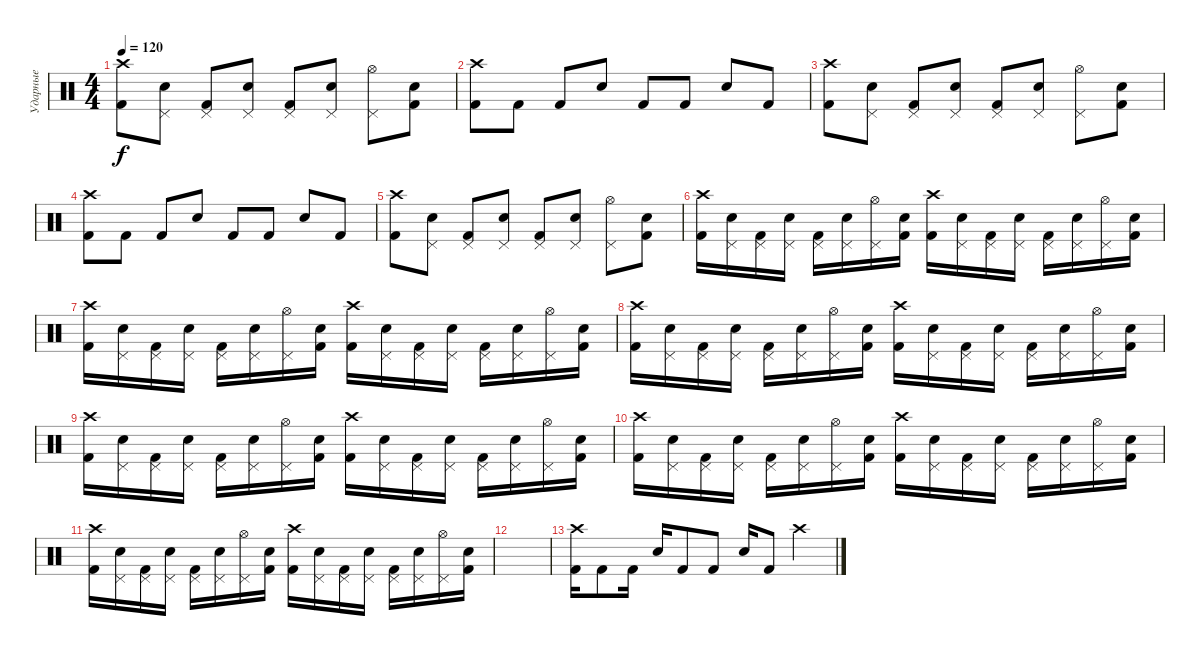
\track ("Ударные" "Ударные") {instrument percussion}
\staff {score}
\articulation defaults
\ts (4 4)
\tempo 120
\clef neutral
\ks c
("Crash high (hit)" "Kick (hit) 2").8{dy f} ("Electric Snare (hit)" "Pedal Hi-Hat (hit)").8 ("Pedal Hi-Hat (hit)" "Kick (hit) 2").8 ("Electric Snare (hit)" "Pedal Hi-Hat (hit)").8 ("Pedal Hi-Hat (hit)" "Kick (hit) 2").8 ("Electric Snare (hit)" "Pedal Hi-Hat (hit)").8 ("Hi-Hat (open)" "Pedal Hi-Hat (hit)").8 ("Electric Snare (hit)" "Kick (hit) 2").8 |
("Crash high (hit)" "Kick (hit) 2").8 "Kick (hit) 2".8 "Kick (hit) 2".8 "Electric Snare (hit)".8 "Kick (hit) 2".8 "Kick (hit) 2".8 "Electric Snare (hit)".8 "Kick (hit) 2".8 |
("Crash high (hit)" "Kick (hit) 2").8 ("Electric Snare (hit)" "Pedal Hi-Hat (hit)").8 ("Pedal Hi-Hat (hit)" "Kick (hit) 2").8 ("Electric Snare (hit)" "Pedal Hi-Hat (hit)").8 ("Pedal Hi-Hat (hit)" "Kick (hit) 2").8 ("Electric Snare (hit)" "Pedal Hi-Hat (hit)").8 ("Hi-Hat (open)" "Pedal Hi-Hat (hit)").8 ("Electric Snare (hit)" "Kick (hit) 2").8 |
("Crash high (hit)" "Kick (hit) 2").8 "Kick (hit) 2".8 "Kick (hit) 2".8 "Electric Snare (hit)".8 "Kick (hit) 2".8 "Kick (hit) 2".8 "Electric Snare (hit)".8 "Kick (hit) 2".8 |
("Crash high (hit)" "Kick (hit) 2").8 ("Electric Snare (hit)" "Pedal Hi-Hat (hit)").8 ("Pedal Hi-Hat (hit)" "Kick (hit) 2").8 ("Electric Snare (hit)" "Pedal Hi-Hat (hit)").8 ("Pedal Hi-Hat (hit)" "Kick (hit) 2").8 ("Electric Snare (hit)" "Pedal Hi-Hat (hit)").8 ("Hi-Hat (open)" "Pedal Hi-Hat (hit)").8 ("Electric Snare (hit)" "Kick (hit) 2").8 |
("Crash high (hit)" "Kick (hit) 2").16 ("Electric Snare (hit)" "Pedal Hi-Hat (hit)").16 ("Pedal Hi-Hat (hit)" "Kick (hit) 2").16 ("Electric Snare (hit)" "Pedal Hi-Hat (hit)").16 ("Pedal Hi-Hat (hit)" "Kick (hit) 2").16 ("Electric Snare (hit)" "Pedal Hi-Hat (hit)").16 ("Hi-Hat (open)" "Pedal Hi-Hat (hit)").16 ("Electric Snare (hit)" "Kick (hit) 2").16 ("Crash high (hit)" "Kick (hit) 2").16 ("Electric Snare (hit)" "Pedal Hi-Hat (hit)").16 ("Pedal Hi-Hat (hit)" "Kick (hit) 2").16 ("Electric Snare (hit)" "Pedal Hi-Hat (hit)").16 ("Pedal Hi-Hat (hit)" "Kick (hit) 2").16 ("Electric Snare (hit)" "Pedal Hi-Hat (hit)").16 ("Hi-Hat (open)" "Pedal Hi-Hat (hit)").16 ("Electric Snare (hit)" "Kick (hit) 2").16 |
("Crash high (hit)" "Kick (hit) 2").16 ("Electric Snare (hit)" "Pedal Hi-Hat (hit)").16 ("Pedal Hi-Hat (hit)" "Kick (hit) 2").16 ("Electric Snare (hit)" "Pedal Hi-Hat (hit)").16 ("Pedal Hi-Hat (hit)" "Kick (hit) 2").16 ("Electric Snare (hit)" "Pedal Hi-Hat (hit)").16 ("Hi-Hat (open)" "Pedal Hi-Hat (hit)").16 ("Electric Snare (hit)" "Kick (hit) 2").16 ("Crash high (hit)" "Kick (hit) 2").16 ("Electric Snare (hit)" "Pedal Hi-Hat (hit)").16 ("Pedal Hi-Hat (hit)" "Kick (hit) 2").16 ("Electric Snare (hit)" "Pedal Hi-Hat (hit)").16 ("Pedal Hi-Hat (hit)" "Kick (hit) 2").16 ("Electric Snare (hit)" "Pedal Hi-Hat (hit)").16 ("Hi-Hat (open)" "Pedal Hi-Hat (hit)").16 ("Electric Snare (hit)" "Kick (hit) 2").16 |
("Crash high (hit)" "Kick (hit) 2").16 ("Electric Snare (hit)" "Pedal Hi-Hat (hit)").16 ("Pedal Hi-Hat (hit)" "Kick (hit) 2").16 ("Electric Snare (hit)" "Pedal Hi-Hat (hit)").16 ("Pedal Hi-Hat (hit)" "Kick (hit) 2").16 ("Electric Snare (hit)" "Pedal Hi-Hat (hit)").16 ("Hi-Hat (open)" "Pedal Hi-Hat (hit)").16 ("Electric Snare (hit)" "Kick (hit) 2").16 ("Crash high (hit)" "Kick (hit) 2").16 ("Electric Snare (hit)" "Pedal Hi-Hat (hit)").16 ("Pedal Hi-Hat (hit)" "Kick (hit) 2").16 ("Electric Snare (hit)" "Pedal Hi-Hat (hit)").16 ("Pedal Hi-Hat (hit)" "Kick (hit) 2").16 ("Electric Snare (hit)" "Pedal Hi-Hat (hit)").16 ("Hi-Hat (open)" "Pedal Hi-Hat (hit)").16 ("Electric Snare (hit)" "Kick (hit) 2").16 |
("Crash high (hit)" "Kick (hit) 2").16 ("Electric Snare (hit)" "Pedal Hi-Hat (hit)").16 ("Pedal Hi-Hat (hit)" "Kick (hit) 2").16 ("Electric Snare (hit)" "Pedal Hi-Hat (hit)").16 ("Pedal Hi-Hat (hit)" "Kick (hit) 2").16 ("Electric Snare (hit)" "Pedal Hi-Hat (hit)").16 ("Hi-Hat (open)" "Pedal Hi-Hat (hit)").16 ("Electric Snare (hit)" "Kick (hit) 2").16 ("Crash high (hit)" "Kick (hit) 2").16 ("Electric Snare (hit)" "Pedal Hi-Hat (hit)").16 ("Pedal Hi-Hat (hit)" "Kick (hit) 2").16 ("Electric Snare (hit)" "Pedal Hi-Hat (hit)").16 ("Pedal Hi-Hat (hit)" "Kick (hit) 2").16 ("Electric Snare (hit)" "Pedal Hi-Hat (hit)").16 ("Hi-Hat (open)" "Pedal Hi-Hat (hit)").16 ("Electric Snare (hit)" "Kick (hit) 2").16 |
("Crash high (hit)" "Kick (hit) 2").16 ("Electric Snare (hit)" "Pedal Hi-Hat (hit)").16 ("Pedal Hi-Hat (hit)" "Kick (hit) 2").16 ("Electric Snare (hit)" "Pedal Hi-Hat (hit)").16 ("Pedal Hi-Hat (hit)" "Kick (hit) 2").16 ("Electric Snare (hit)" "Pedal Hi-Hat (hit)").16 ("Hi-Hat (open)" "Pedal Hi-Hat (hit)").16 ("Electric Snare (hit)" "Kick (hit) 2").16 ("Crash high (hit)" "Kick (hit) 2").16 ("Electric Snare (hit)" "Pedal Hi-Hat (hit)").16 ("Pedal Hi-Hat (hit)" "Kick (hit) 2").16 ("Electric Snare (hit)" "Pedal Hi-Hat (hit)").16 ("Pedal Hi-Hat (hit)" "Kick (hit) 2").16 ("Electric Snare (hit)" "Pedal Hi-Hat (hit)").16 ("Hi-Hat (open)" "Pedal Hi-Hat (hit)").16 ("Electric Snare (hit)" "Kick (hit) 2").16 |
("Crash high (hit)" "Kick (hit) 2").16 ("Electric Snare (hit)" "Pedal Hi-Hat (hit)").16 ("Pedal Hi-Hat (hit)" "Kick (hit) 2").16 ("Electric Snare (hit)" "Pedal Hi-Hat (hit)").16 ("Pedal Hi-Hat (hit)" "Kick (hit) 2").16 ("Electric Snare (hit)" "Pedal Hi-Hat (hit)").16 ("Hi-Hat (open)" "Pedal Hi-Hat (hit)").16 ("Electric Snare (hit)" "Kick (hit) 2").16 ("Crash high (hit)" "Kick (hit) 2").16 ("Electric Snare (hit)" "Pedal Hi-Hat (hit)").16 ("Pedal Hi-Hat (hit)" "Kick (hit) 2").16 ("Electric Snare (hit)" "Pedal Hi-Hat (hit)").16 ("Pedal Hi-Hat (hit)" "Kick (hit) 2").16 ("Electric Snare (hit)" "Pedal Hi-Hat (hit)").16 ("Hi-Hat (open)" "Pedal Hi-Hat (hit)").16 ("Electric Snare (hit)" "Kick (hit) 2").16 |
|
("Crash high (hit)" "Kick (hit) 2").16 "Kick (hit) 2".8 "Kick (hit) 2".16 "Electric Snare (hit)".16 "Kick (hit) 2".8 "Kick (hit) 2".8 "Electric Snare (hit)".16 "Kick (hit) 2".8 "Crash high (hit)".4
